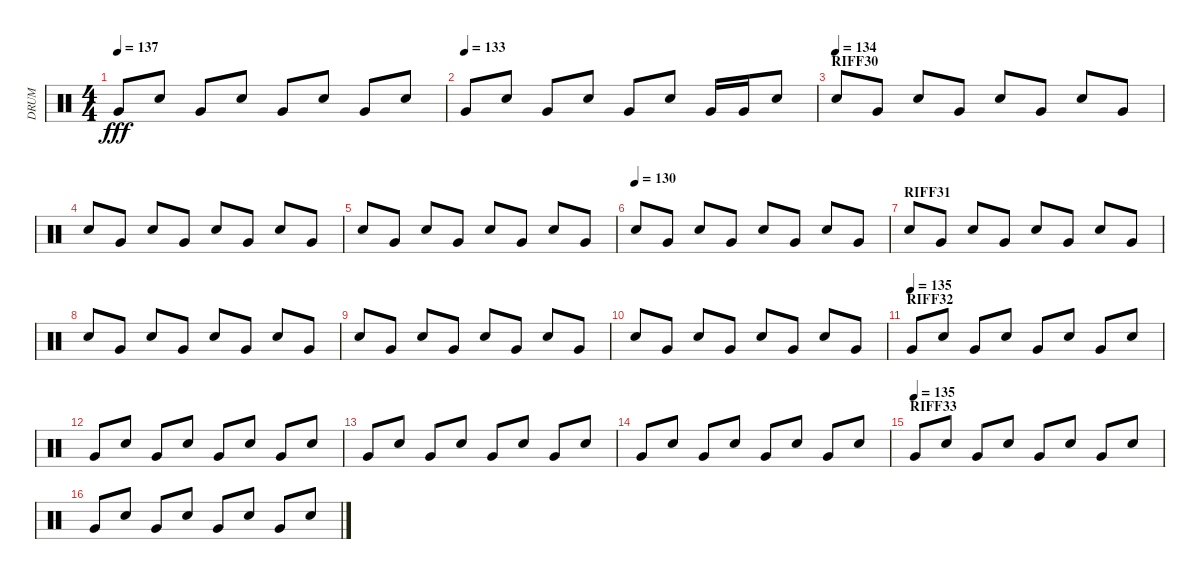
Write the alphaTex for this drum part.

\track ("DRUM" "DRUM") {instrument percussion}
\staff {score}
\articulation defaults
\ts (4 4)
\tempo 137
\clef neutral
\ks c "Very Low Tom (hit)".8{dy fff} "Electric Snare (hit)".8 "Very Low Tom (hit)".8 "Electric Snare (hit)".8 "Very Low Tom (hit)".8 "Electric Snare (hit)".8 "Very Low Tom (hit)".8 "Electric Snare (hit)".8
|
\tempo (133)
"Very Low Tom (hit)".8 "Electric Snare (hit)".8 "Very Low Tom (hit)".8 "Electric Snare (hit)".8 "Very Low Tom (hit)".8 "Electric Snare (hit)".8 "Very Low Tom (hit)".16 "Very Low Tom (hit)".16 "Electric Snare (hit)".8 |
\section ("" "RIFF30")
\tempo (134)
"Electric Snare (hit)".8 "Very Low Tom (hit)".8 "Electric Snare (hit)".8 "Very Low Tom (hit)".8 "Electric Snare (hit)".8 "Very Low Tom (hit)".8 "Electric Snare (hit)".8 "Very Low Tom (hit)".8 |
"Electric Snare (hit)".8 "Very Low Tom (hit)".8 "Electric Snare (hit)".8 "Very Low Tom (hit)".8 "Electric Snare (hit)".8 "Very Low Tom (hit)".8 "Electric Snare (hit)".8 "Very Low Tom (hit)".8 |
"Electric Snare (hit)".8 "Very Low Tom (hit)".8 "Electric Snare (hit)".8 "Very Low Tom (hit)".8 "Electric Snare (hit)".8 "Very Low Tom (hit)".8 "Electric Snare (hit)".8 "Very Low Tom (hit)".8 |
\tempo (130)
"Electric Snare (hit)".8 "Very Low Tom (hit)".8 "Electric Snare (hit)".8 "Very Low Tom (hit)".8 "Electric Snare (hit)".8 "Very Low Tom (hit)".8 "Electric Snare (hit)".8 "Very Low Tom (hit)".8 |
\section ("" "RIFF31")
"Electric Snare (hit)".8 "Very Low Tom (hit)".8 "Electric Snare (hit)".8 "Very Low Tom (hit)".8 "Electric Snare (hit)".8 "Very Low Tom (hit)".8 "Electric Snare (hit)".8 "Very Low Tom (hit)".8 |
"Electric Snare (hit)".8 "Very Low Tom (hit)".8 "Electric Snare (hit)".8 "Very Low Tom (hit)".8 "Electric Snare (hit)".8 "Very Low Tom (hit)".8 "Electric Snare (hit)".8 "Very Low Tom (hit)".8 |
"Electric Snare (hit)".8 "Very Low Tom (hit)".8 "Electric Snare (hit)".8 "Very Low Tom (hit)".8 "Electric Snare (hit)".8 "Very Low Tom (hit)".8 "Electric Snare (hit)".8 "Very Low Tom (hit)".8 |
"Electric Snare (hit)".8 "Very Low Tom (hit)".8 "Electric Snare (hit)".8 "Very Low Tom (hit)".8 "Electric Snare (hit)".8 "Very Low Tom (hit)".8 "Electric Snare (hit)".8 "Very Low Tom (hit)".8 |
\section ("" "RIFF32")
\tempo (135)
"Very Low Tom (hit)".8 "Electric Snare (hit)".8 "Very Low Tom (hit)".8 "Electric Snare (hit)".8 "Very Low Tom (hit)".8 "Electric Snare (hit)".8 "Very Low Tom (hit)".8 "Electric Snare (hit)".8 |
"Very Low Tom (hit)".8 "Electric Snare (hit)".8 "Very Low Tom (hit)".8 "Electric Snare (hit)".8 "Very Low Tom (hit)".8 "Electric Snare (hit)".8 "Very Low Tom (hit)".8 "Electric Snare (hit)".8 |
"Very Low Tom (hit)".8 "Electric Snare (hit)".8 "Very Low Tom (hit)".8 "Electric Snare (hit)".8 "Very Low Tom (hit)".8 "Electric Snare (hit)".8 "Very Low Tom (hit)".8 "Electric Snare (hit)".8 |
"Very Low Tom (hit)".8 "Electric Snare (hit)".8 "Very Low Tom (hit)".8 "Electric Snare (hit)".8 "Very Low Tom (hit)".8 "Electric Snare (hit)".8 "Very Low Tom (hit)".8 "Electric Snare (hit)".8 |
\section ("" "RIFF33")
\tempo (135)
"Very Low Tom (hit)".8 "Electric Snare (hit)".8 "Very Low Tom (hit)".8 "Electric Snare (hit)".8 "Very Low Tom (hit)".8 "Electric Snare (hit)".8 "Very Low Tom (hit)".8 "Electric Snare (hit)".8 |
"Very Low Tom (hit)".8 "Electric Snare (hit)".8 "Very Low Tom (hit)".8 "Electric Snare (hit)".8 "Very Low Tom (hit)".8 "Electric Snare (hit)".8 "Very Low Tom (hit)".8 "Electric Snare (hit)".8
